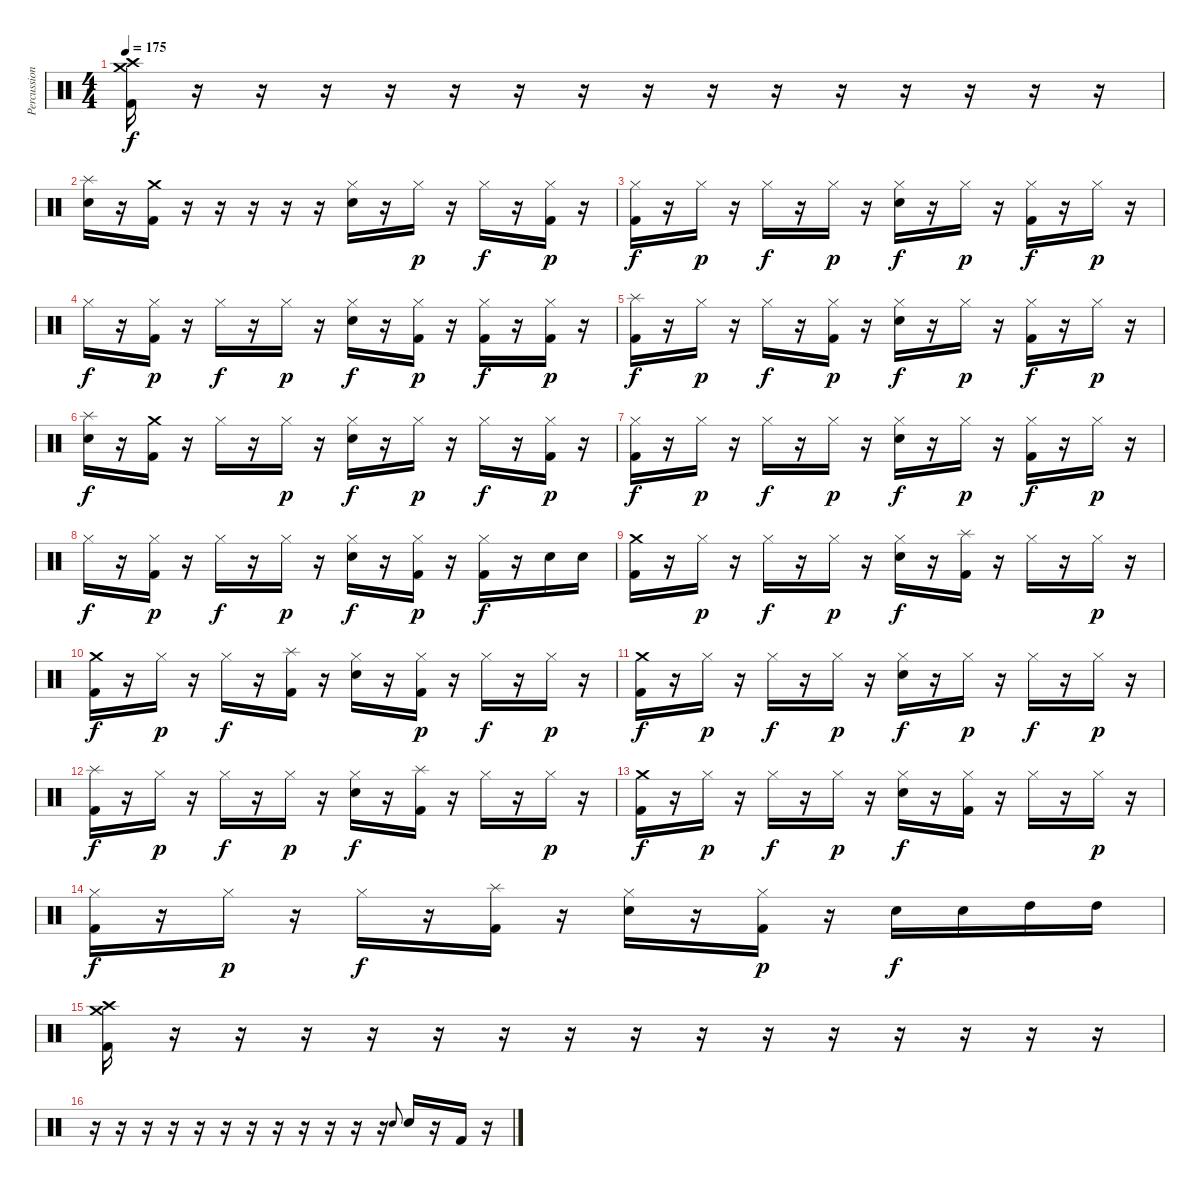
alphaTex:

\track ("Percussion" "Percussion") {instrument percussion}
\staff {score}
\articulation defaults
\ts (4 4)
\tempo 175
\clef neutral
\ks c
("Crash medium (hit)" "Crash high (hit)" "Kick (hit) 2").16{dy f} r.16 r.16 r.16 r.16 r.16 r.16 r.16 r.16 r.16 r.16 r.16 r.16 r.16 r.16 r.16 |
("Splash (hit)" "Electric Snare (hit)").16 r.16 ("Crash medium (hit)" "Kick (hit) 2").16 r.16 r.16 r.16 r.16 r.16 ("Hi-Hat (closed)" "Electric Snare (hit)").16 r.16 "Hi-Hat (closed)".16{dy p} r.16 "Hi-Hat (closed)".16{dy f} r.16 ("Hi-Hat (closed)" "Kick (hit) 2").16{dy p} r.16 |
("Hi-Hat (closed)" "Kick (hit) 2").16{dy f} r.16 "Hi-Hat (closed)".16{dy p} r.16 "Hi-Hat (closed)".16{dy f} r.16 "Hi-Hat (closed)".16{dy p} r.16 ("Hi-Hat (closed)" "Electric Snare (hit)").16{dy f} r.16 "Hi-Hat (closed)".16{dy p} r.16 ("Hi-Hat (closed)" "Kick (hit) 2").16{dy f} r.16 "Hi-Hat (closed)".16{dy p} r.16 |
"Hi-Hat (closed)".16{dy f} r.16 ("Hi-Hat (closed)" "Kick (hit) 2").16{dy p} r.16 "Hi-Hat (closed)".16{dy f} r.16 "Hi-Hat (closed)".16{dy p} r.16 ("Hi-Hat (closed)" "Electric Snare (hit)").16{dy f} r.16 ("Hi-Hat (closed)" "Kick (hit) 2").16{dy p} r.16 ("Hi-Hat (closed)" "Kick (hit) 2").16{dy f} r.16 ("Hi-Hat (closed)" "Kick (hit) 2").16{dy p} r.16 |
("Splash (hit)" "Kick (hit) 2").16{dy f} r.16 "Hi-Hat (closed)".16{dy p} r.16 "Hi-Hat (closed)".16{dy f} r.16 ("Hi-Hat (closed)" "Kick (hit) 2").16{dy p} r.16 ("Hi-Hat (closed)" "Electric Snare (hit)").16{dy f} r.16 "Hi-Hat (closed)".16{dy p} r.16 ("Hi-Hat (closed)" "Kick (hit) 2").16{dy f} r.16 "Hi-Hat (closed)".16{dy p} r.16 |
("Splash (hit)" "Electric Snare (hit)").16{dy f} r.16 ("Crash medium (hit)" "Kick (hit) 2").16 r.16 "Hi-Hat (closed)".16 r.16 "Hi-Hat (closed)".16{dy p} r.16 ("Hi-Hat (closed)" "Electric Snare (hit)").16{dy f} r.16 "Hi-Hat (closed)".16{dy p} r.16 "Hi-Hat (closed)".16{dy f} r.16 ("Hi-Hat (closed)" "Kick (hit) 2").16{dy p} r.16 |
("Hi-Hat (closed)" "Kick (hit) 2").16{dy f} r.16 "Hi-Hat (closed)".16{dy p} r.16 "Hi-Hat (closed)".16{dy f} r.16 "Hi-Hat (closed)".16{dy p} r.16 ("Hi-Hat (closed)" "Electric Snare (hit)").16{dy f} r.16 "Hi-Hat (closed)".16{dy p} r.16 ("Hi-Hat (closed)" "Kick (hit) 2").16{dy f} r.16 "Hi-Hat (closed)".16{dy p} r.16 |
"Hi-Hat (closed)".16{dy f} r.16 ("Hi-Hat (closed)" "Kick (hit) 2").16{dy p} r.16 "Hi-Hat (closed)".16{dy f} r.16 "Hi-Hat (closed)".16{dy p} r.16 ("Hi-Hat (closed)" "Electric Snare (hit)").16{dy f} r.16 ("Hi-Hat (closed)" "Kick (hit) 2").16{dy p} r.16 ("Hi-Hat (closed)" "Kick (hit) 2").16{dy f} r.16 "Electric Snare (hit)".16 "Electric Snare (hit)".16 |
("Crash medium (hit)" "Kick (hit) 2").16 r.16 "Hi-Hat (closed)".16{dy p} r.16 "Hi-Hat (closed)".16{dy f} r.16 "Hi-Hat (closed)".16{dy p} r.16 ("Hi-Hat (closed)" "Electric Snare (hit)").16{dy f} r.16 ("Splash (hit)" "Kick (hit) 2").16 r.16 "Hi-Hat (closed)".16 r.16 "Hi-Hat (closed)".16{dy p} r.16 |
("Crash medium (hit)" "Kick (hit) 2").16{dy f} r.16 "Hi-Hat (closed)".16{dy p} r.16 "Hi-Hat (closed)".16{dy f} r.16 ("Splash (hit)" "Kick (hit) 2").16 r.16 ("Hi-Hat (closed)" "Electric Snare (hit)").16 r.16 ("Hi-Hat (closed)" "Kick (hit) 2").16{dy p} r.16 "Hi-Hat (closed)".16{dy f} r.16 "Hi-Hat (closed)".16{dy p} r.16 |
("Crash medium (hit)" "Kick (hit) 2").16{dy f} r.16 "Hi-Hat (closed)".16{dy p} r.16 "Hi-Hat (closed)".16{dy f} r.16 "Hi-Hat (closed)".16{dy p} r.16 ("Hi-Hat (closed)" "Electric Snare (hit)").16{dy f} r.16 "Hi-Hat (closed)".16{dy p} r.16 "Hi-Hat (closed)".16{dy f} r.16 "Hi-Hat (closed)".16{dy p} r.16 |
("Splash (hit)" "Kick (hit) 2").16{dy f} r.16 "Hi-Hat (closed)".16{dy p} r.16 "Hi-Hat (closed)".16{dy f} r.16 "Hi-Hat (closed)".16{dy p} r.16 ("Hi-Hat (closed)" "Electric Snare (hit)").16{dy f} r.16 ("Splash (hit)" "Kick (hit) 2").16 r.16 "Hi-Hat (closed)".16 r.16 "Hi-Hat (closed)".16{dy p} r.16 |
("Crash medium (hit)" "Kick (hit) 2").16{dy f} r.16 "Hi-Hat (closed)".16{dy p} r.16 "Hi-Hat (closed)".16{dy f} r.16 "Hi-Hat (closed)".16{dy p} r.16 ("Hi-Hat (closed)" "Electric Snare (hit)").16{dy f} r.16 ("Hi-Hat (closed)" "Kick (hit) 2").16 r.16 "Hi-Hat (closed)".16 r.16 "Hi-Hat (closed)".16{dy p} r.16 |
("Hi-Hat (closed)" "Kick (hit) 2").16{dy f} r.16 "Hi-Hat (closed)".16{dy p} r.16 "Hi-Hat (closed)".16{dy f} r.16 ("Splash (hit)" "Kick (hit) 2").16 r.16 ("Hi-Hat (closed)" "Electric Snare (hit)").16 r.16 ("Hi-Hat (closed)" "Kick (hit) 2").16{dy p} r.16 "Electric Snare (hit)".16{dy f} "Electric Snare (hit)".16 "High Tom (hit)".16 "High Tom (hit)".16 |
("Crash high (hit)" "Crash medium (hit)" "Kick (hit) 2").16 r.16 r.16 r.16 r.16 r.16 r.16 r.16 r.16 r.16 r.16 r.16 r.16 r.16 r.16 r.16 |
r.16 r.16 r.16 r.16 r.16 r.16 r.16 r.16 r.16 r.16 r.16 r.16 "Electric Snare (hit)".8{gr onbeat} "Electric Snare (hit)".16 r.16 "Kick (hit) 2".16 r.16
